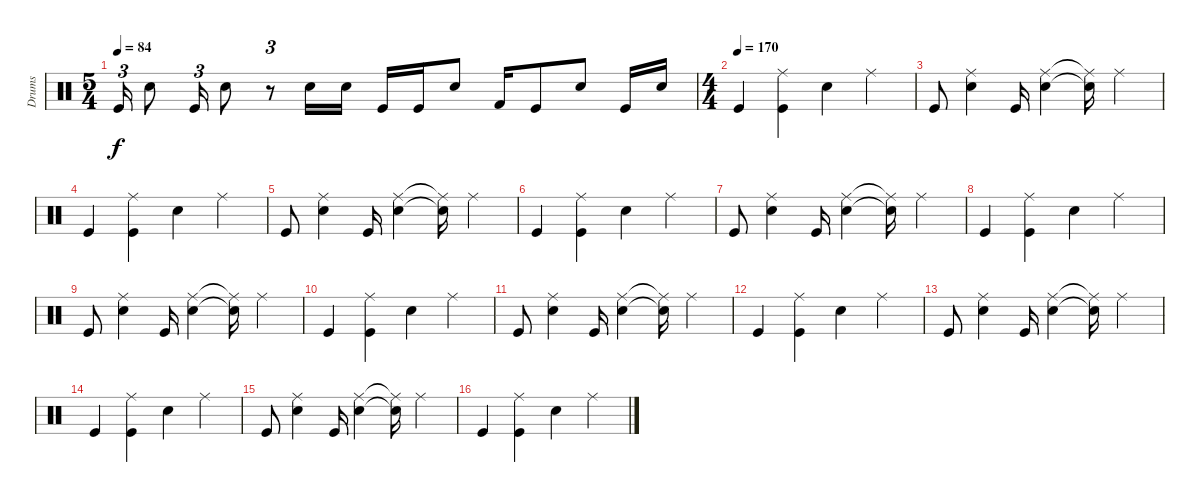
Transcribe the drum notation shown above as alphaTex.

\track ("Drums" "Drums") {instrument percussion}
\staff {score}
\articulation defaults
\ts (5 4)
\tempo 84
\clef neutral
\ks c "Kick (hit)".16{tu (3 2) dy f} "Electric Snare (hit)".8 "Kick (hit)".16{tu (3 2)} "Electric Snare (hit)".8
r.8{tu (3 2)} "Electric Snare (hit)".16 "Electric Snare (hit)".16 "Kick (hit)".16 "Kick (hit)".16 "Electric Snare (hit)".8 "Kick (hit) 2".16 "Kick (hit)".8 "Electric Snare (hit)".8 "Kick (hit)".16 "Electric Snare (hit)".16 |
\ts (4 4)
\tempo (170)
"Kick (hit)".4 ("Ride (middle)" "Kick (hit)").4 "Electric Snare (hit)".4 "Ride (middle)".4 |
"Kick (hit)".8 ("Ride (middle)" "Electric Snare (hit)").4 "Kick (hit)".16 ("Ride (middle)" "Electric Snare (hit)").4 ("Ride (middle)"{t} "Snare (hit)"{t}).16 "Ride (middle)".4 |
"Kick (hit)".4 ("Ride (middle)" "Kick (hit)").4 "Electric Snare (hit)".4 "Ride (middle)".4 |
"Kick (hit)".8 ("Ride (middle)" "Electric Snare (hit)").4 "Kick (hit)".16 ("Ride (middle)" "Electric Snare (hit)").4 ("Ride (middle)"{t} "Snare (hit)"{t}).16 "Ride (middle)".4 |
"Kick (hit)".4 ("Ride (middle)" "Kick (hit)").4 "Electric Snare (hit)".4 "Ride (middle)".4 |
"Kick (hit)".8 ("Ride (middle)" "Electric Snare (hit)").4 "Kick (hit)".16 ("Ride (middle)" "Electric Snare (hit)").4 ("Ride (middle)"{t} "Snare (hit)"{t}).16 "Ride (middle)".4 |
"Kick (hit)".4 ("Ride (middle)" "Kick (hit)").4 "Electric Snare (hit)".4 "Ride (middle)".4 |
"Kick (hit)".8 ("Ride (middle)" "Electric Snare (hit)").4 "Kick (hit)".16 ("Ride (middle)" "Electric Snare (hit)").4 ("Ride (middle)"{t} "Snare (hit)"{t}).16 "Ride (middle)".4 |
"Kick (hit)".4 ("Ride (middle)" "Kick (hit)").4 "Electric Snare (hit)".4 "Ride (middle)".4 |
"Kick (hit)".8 ("Ride (middle)" "Electric Snare (hit)").4 "Kick (hit)".16 ("Ride (middle)" "Electric Snare (hit)").4 ("Ride (middle)"{t} "Snare (hit)"{t}).16 "Ride (middle)".4 |
"Kick (hit)".4 ("Ride (middle)" "Kick (hit)").4 "Electric Snare (hit)".4 "Ride (middle)".4 |
"Kick (hit)".8 ("Ride (middle)" "Electric Snare (hit)").4 "Kick (hit)".16 ("Ride (middle)" "Electric Snare (hit)").4 ("Ride (middle)"{t} "Snare (hit)"{t}).16 "Ride (middle)".4 |
"Kick (hit)".4 ("Ride (middle)" "Kick (hit)").4 "Electric Snare (hit)".4 "Ride (middle)".4 |
"Kick (hit)".8 ("Ride (middle)" "Electric Snare (hit)").4 "Kick (hit)".16 ("Ride (middle)" "Electric Snare (hit)").4 ("Ride (middle)"{t} "Snare (hit)"{t}).16 "Ride (middle)".4 |
"Kick (hit)".4 ("Ride (middle)" "Kick (hit)").4 "Electric Snare (hit)".4 "Ride (middle)".4
